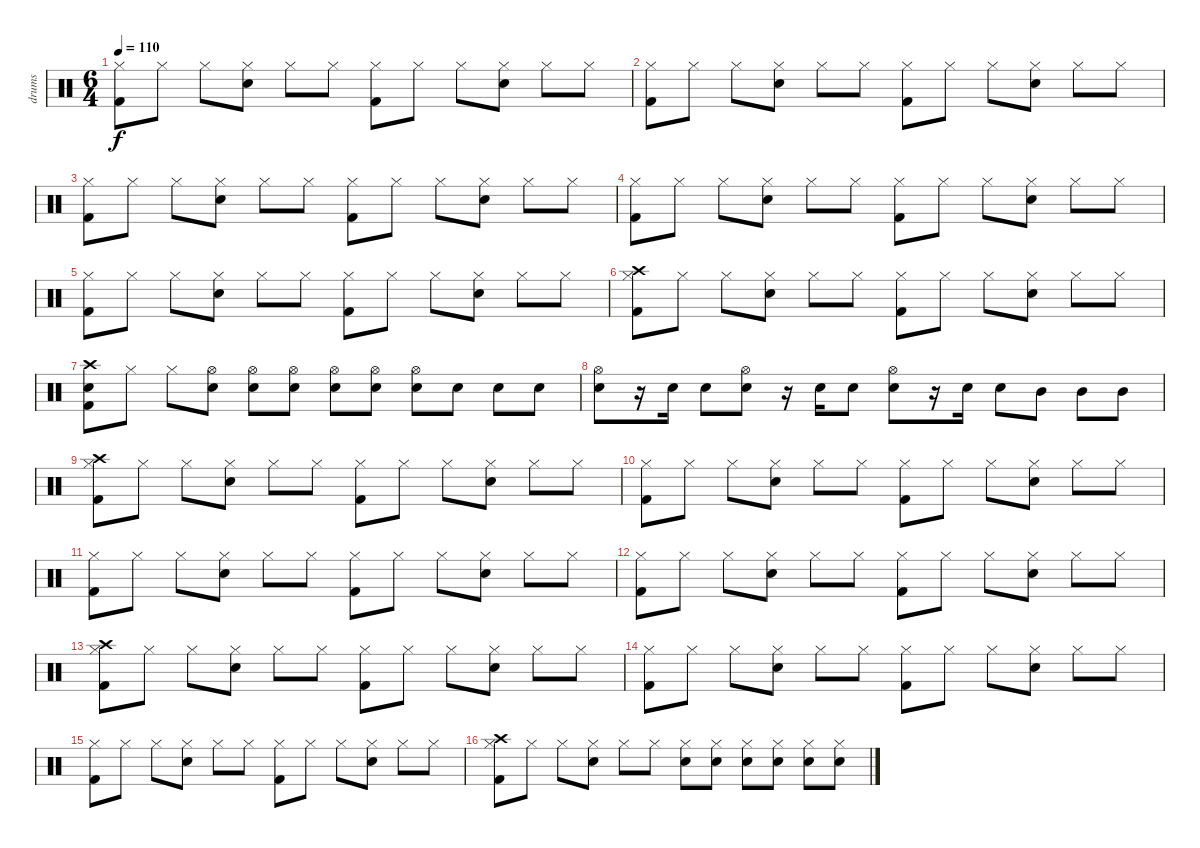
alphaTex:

\track ("drums" "drums") {instrument percussion}
\staff {score}
\articulation defaults
\ts (6 4)
\tempo 110
\clef neutral
\ks c
("Hi-Hat (closed)" "Kick (hit) 2").8{dy f} "Hi-Hat (closed)".8 "Hi-Hat (closed)".8 ("Hi-Hat (closed)" "Snare (hit) 2").8 "Hi-Hat (closed)".8 "Hi-Hat (closed)".8 ("Hi-Hat (closed)" "Kick (hit) 2").8 "Hi-Hat (closed)".8 "Hi-Hat (closed)".8 ("Hi-Hat (closed)" "Snare (hit) 2").8 "Hi-Hat (closed)".8 "Hi-Hat (closed)".8 |
("Hi-Hat (closed)" "Kick (hit) 2").8 "Hi-Hat (closed)".8 "Hi-Hat (closed)".8 ("Hi-Hat (closed)" "Snare (hit) 2").8 "Hi-Hat (closed)".8 "Hi-Hat (closed)".8 ("Hi-Hat (closed)" "Kick (hit) 2").8 "Hi-Hat (closed)".8 "Hi-Hat (closed)".8 ("Hi-Hat (closed)" "Snare (hit) 2").8 "Hi-Hat (closed)".8 "Hi-Hat (closed)".8 |
("Hi-Hat (closed)" "Kick (hit) 2").8 "Hi-Hat (closed)".8 "Hi-Hat (closed)".8 ("Hi-Hat (closed)" "Snare (hit) 2").8 "Hi-Hat (closed)".8 "Hi-Hat (closed)".8 ("Hi-Hat (closed)" "Kick (hit) 2").8 "Hi-Hat (closed)".8 "Hi-Hat (closed)".8 ("Hi-Hat (closed)" "Snare (hit) 2").8 "Hi-Hat (closed)".8 "Hi-Hat (closed)".8 |
("Hi-Hat (closed)" "Kick (hit) 2").8 "Hi-Hat (closed)".8 "Hi-Hat (closed)".8 ("Hi-Hat (closed)" "Snare (hit) 2").8 "Hi-Hat (closed)".8 "Hi-Hat (closed)".8 ("Hi-Hat (closed)" "Kick (hit) 2").8 "Hi-Hat (closed)".8 "Hi-Hat (closed)".8 ("Hi-Hat (closed)" "Snare (hit) 2").8 "Hi-Hat (closed)".8 "Hi-Hat (closed)".8 |
("Hi-Hat (closed)" "Kick (hit) 2").8 "Hi-Hat (closed)".8 "Hi-Hat (closed)".8 ("Hi-Hat (closed)" "Snare (hit) 2").8 "Hi-Hat (closed)".8 "Hi-Hat (closed)".8 ("Hi-Hat (closed)" "Kick (hit) 2").8 "Hi-Hat (closed)".8 "Hi-Hat (closed)".8 ("Hi-Hat (closed)" "Snare (hit) 2").8 "Hi-Hat (closed)".8 "Hi-Hat (closed)".8 |
("Hi-Hat (closed)" "Kick (hit) 2" "Crash high (hit)").8 "Hi-Hat (closed)".8 "Hi-Hat (closed)".8 ("Hi-Hat (closed)" "Snare (hit) 2").8 "Hi-Hat (closed)".8 "Hi-Hat (closed)".8 ("Hi-Hat (closed)" "Kick (hit) 2").8 "Hi-Hat (closed)".8 "Hi-Hat (closed)".8 ("Hi-Hat (closed)" "Snare (hit) 2").8 "Hi-Hat (closed)".8 "Hi-Hat (closed)".8 |
("Electric Snare (hit)" "Kick (hit) 2" "Crash high (hit)").8 "Hi-Hat (closed)".8 "Hi-Hat (closed)".8 ("Hi-Hat (open)" "Snare (hit) 2").8 ("Hi-Hat (open)" "Snare (hit) 2").8 ("Hi-Hat (open)" "Snare (hit) 2").8 ("Hi-Hat (open)" "Snare (hit) 2").8 ("Hi-Hat (open)" "Snare (hit) 2").8 ("Hi-Hat (open)" "Snare (hit) 2").8 "Snare (hit) 2".8 "Snare (hit) 2".8 "Snare (hit) 2".8 |
("Hi-Hat (open)" "Snare (hit) 2").8 r.16 "Snare (hit) 2".16 "Snare (hit) 2".8 ("Hi-Hat (open)" "Snare (hit) 2").8 r.16 "Snare (hit) 2".16 "Snare (hit) 2".8 ("Hi-Hat (open)" "Snare (hit) 2").8 r.16 "Snare (hit) 2".16 "Snare (hit) 2".8 "Mid Tom (hit)".8 "Mid Tom (hit)".8 "Mid Tom (hit)".8 |
("Hi-Hat (closed)" "Kick (hit) 2" "Crash high (hit)").8 "Hi-Hat (closed)".8 "Hi-Hat (closed)".8 ("Hi-Hat (closed)" "Snare (hit) 2").8 "Hi-Hat (closed)".8 "Hi-Hat (closed)".8 ("Hi-Hat (closed)" "Kick (hit) 2").8 "Hi-Hat (closed)".8 "Hi-Hat (closed)".8 ("Hi-Hat (closed)" "Snare (hit) 2").8 "Hi-Hat (closed)".8 "Hi-Hat (closed)".8 |
("Hi-Hat (closed)" "Kick (hit) 2").8 "Hi-Hat (closed)".8 "Hi-Hat (closed)".8 ("Hi-Hat (closed)" "Snare (hit) 2").8 "Hi-Hat (closed)".8 "Hi-Hat (closed)".8 ("Hi-Hat (closed)" "Kick (hit) 2").8 "Hi-Hat (closed)".8 "Hi-Hat (closed)".8 ("Hi-Hat (closed)" "Snare (hit) 2").8 "Hi-Hat (closed)".8 "Hi-Hat (closed)".8 |
("Hi-Hat (closed)" "Kick (hit) 2").8 "Hi-Hat (closed)".8 "Hi-Hat (closed)".8 ("Hi-Hat (closed)" "Snare (hit) 2").8 "Hi-Hat (closed)".8 "Hi-Hat (closed)".8 ("Hi-Hat (closed)" "Kick (hit) 2").8 "Hi-Hat (closed)".8 "Hi-Hat (closed)".8 ("Hi-Hat (closed)" "Snare (hit) 2").8 "Hi-Hat (closed)".8 "Hi-Hat (closed)".8 |
("Hi-Hat (closed)" "Kick (hit) 2").8 "Hi-Hat (closed)".8 "Hi-Hat (closed)".8 ("Hi-Hat (closed)" "Snare (hit) 2").8 "Hi-Hat (closed)".8 "Hi-Hat (closed)".8 ("Hi-Hat (closed)" "Kick (hit) 2").8 "Hi-Hat (closed)".8 "Hi-Hat (closed)".8 ("Hi-Hat (closed)" "Snare (hit) 2").8 "Hi-Hat (closed)".8 "Hi-Hat (closed)".8 |
("Hi-Hat (closed)" "Kick (hit) 2" "Crash high (hit)").8 "Hi-Hat (closed)".8 "Hi-Hat (closed)".8 ("Hi-Hat (closed)" "Snare (hit) 2").8 "Hi-Hat (closed)".8 "Hi-Hat (closed)".8 ("Hi-Hat (closed)" "Kick (hit) 2").8 "Hi-Hat (closed)".8 "Hi-Hat (closed)".8 ("Hi-Hat (closed)" "Snare (hit) 2").8 "Hi-Hat (closed)".8 "Hi-Hat (closed)".8 |
("Hi-Hat (closed)" "Kick (hit) 2").8 "Hi-Hat (closed)".8 "Hi-Hat (closed)".8 ("Hi-Hat (closed)" "Snare (hit) 2").8 "Hi-Hat (closed)".8 "Hi-Hat (closed)".8 ("Hi-Hat (closed)" "Kick (hit) 2").8 "Hi-Hat (closed)".8 "Hi-Hat (closed)".8 ("Hi-Hat (closed)" "Snare (hit) 2").8 "Hi-Hat (closed)".8 "Hi-Hat (closed)".8 |
("Hi-Hat (closed)" "Kick (hit) 2").8 "Hi-Hat (closed)".8 "Hi-Hat (closed)".8 ("Hi-Hat (closed)" "Snare (hit) 2").8 "Hi-Hat (closed)".8 "Hi-Hat (closed)".8 ("Hi-Hat (closed)" "Kick (hit) 2").8 "Hi-Hat (closed)".8 "Hi-Hat (closed)".8 ("Hi-Hat (closed)" "Snare (hit) 2").8 "Hi-Hat (closed)".8 "Hi-Hat (closed)".8 |
("Hi-Hat (closed)" "Kick (hit) 2" "Crash high (hit)").8 "Hi-Hat (closed)".8 "Hi-Hat (closed)".8 ("Hi-Hat (closed)" "Snare (hit) 2").8 "Hi-Hat (closed)".8 "Hi-Hat (closed)".8 ("Hi-Hat (closed)" "Snare (hit) 2").8 ("Hi-Hat (closed)" "Snare (hit) 2").8 ("Hi-Hat (closed)" "Snare (hit) 2").8 ("Hi-Hat (closed)" "Snare (hit) 2").8 ("Hi-Hat (closed)" "Snare (hit) 2").8 ("Hi-Hat (closed)" "Snare (hit) 2").8
